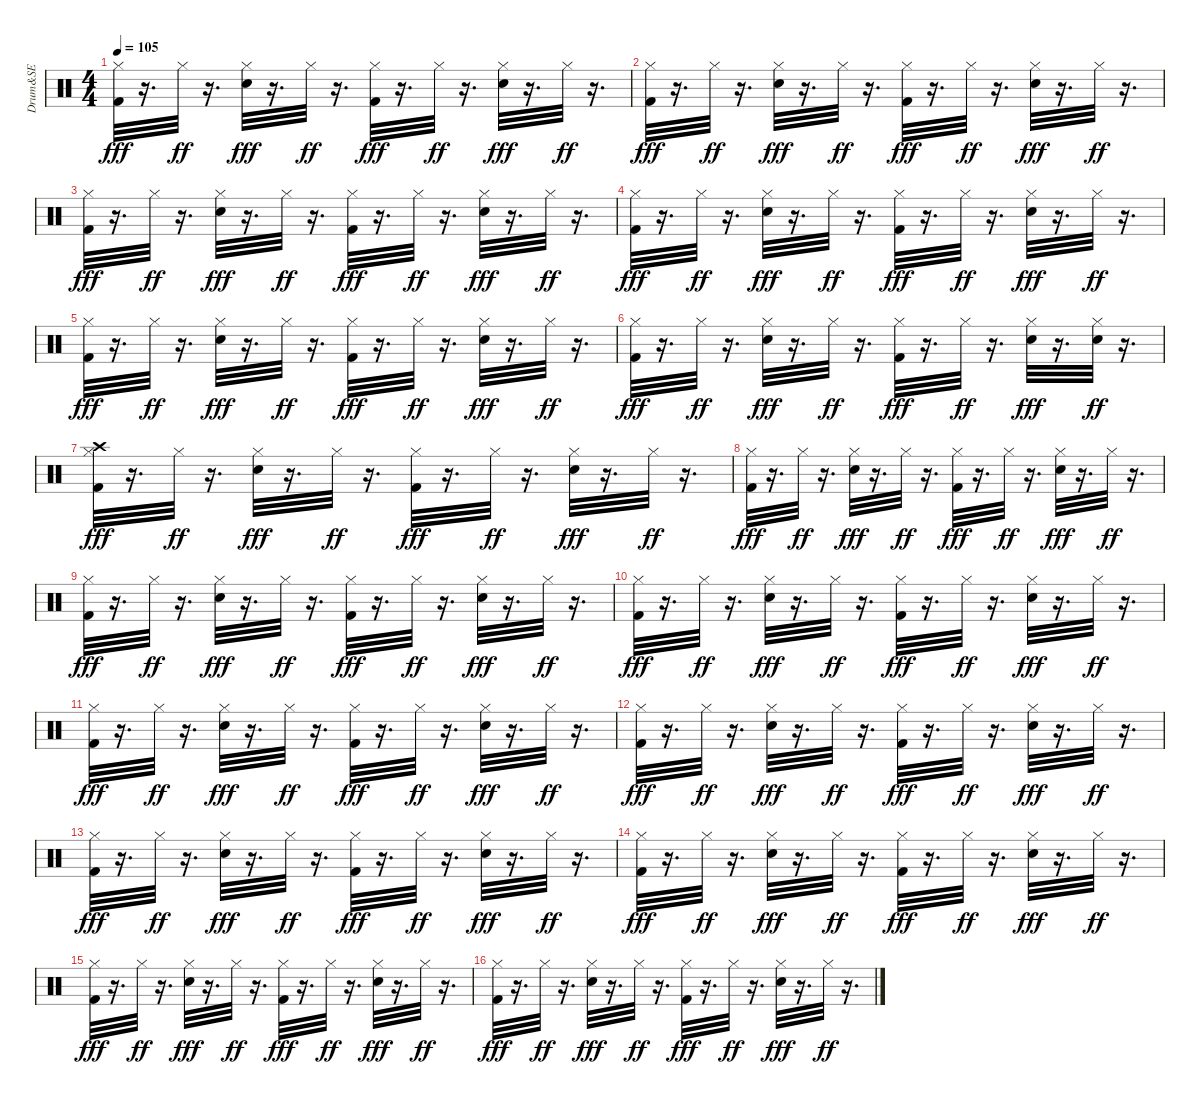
\track ("Drum&SE" "Drum&SE") {instrument percussion}
\staff {score}
\articulation defaults
\ts (4 4)
\tempo 105
\clef neutral
\ks c
("Kick (hit) 2" "Hi-Hat (closed)").32{dy fff} r.16{d} "Hi-Hat (closed)".32{dy ff} r.16{d} ("Snare (hit) 2" "Hi-Hat (closed)").32{dy fff} r.16{d} "Hi-Hat (closed)".32{dy ff} r.16{d} ("Kick (hit) 2" "Hi-Hat (closed)").32{dy fff} r.16{d} "Hi-Hat (closed)".32{dy ff} r.16{d} ("Snare (hit) 2" "Hi-Hat (closed)").32{dy fff} r.16{d} "Hi-Hat (closed)".32{dy ff} r.16{d} |
("Kick (hit) 2" "Hi-Hat (closed)").32{dy fff} r.16{d} "Hi-Hat (closed)".32{dy ff} r.16{d} ("Snare (hit) 2" "Hi-Hat (closed)").32{dy fff} r.16{d} "Hi-Hat (closed)".32{dy ff} r.16{d} ("Kick (hit) 2" "Hi-Hat (closed)").32{dy fff} r.16{d} "Hi-Hat (closed)".32{dy ff} r.16{d} ("Snare (hit) 2" "Hi-Hat (closed)").32{dy fff} r.16{d} "Hi-Hat (closed)".32{dy ff} r.16{d} |
("Kick (hit) 2" "Hi-Hat (closed)").32{dy fff} r.16{d} "Hi-Hat (closed)".32{dy ff} r.16{d} ("Snare (hit) 2" "Hi-Hat (closed)").32{dy fff} r.16{d} "Hi-Hat (closed)".32{dy ff} r.16{d} ("Kick (hit) 2" "Hi-Hat (closed)").32{dy fff} r.16{d} "Hi-Hat (closed)".32{dy ff} r.16{d} ("Snare (hit) 2" "Hi-Hat (closed)").32{dy fff} r.16{d} "Hi-Hat (closed)".32{dy ff} r.16{d} |
("Kick (hit) 2" "Hi-Hat (closed)").32{dy fff} r.16{d} "Hi-Hat (closed)".32{dy ff} r.16{d} ("Snare (hit) 2" "Hi-Hat (closed)").32{dy fff} r.16{d} "Hi-Hat (closed)".32{dy ff} r.16{d} ("Kick (hit) 2" "Hi-Hat (closed)").32{dy fff} r.16{d} "Hi-Hat (closed)".32{dy ff} r.16{d} ("Snare (hit) 2" "Hi-Hat (closed)").32{dy fff} r.16{d} "Hi-Hat (closed)".32{dy ff} r.16{d} |
("Kick (hit) 2" "Hi-Hat (closed)").32{dy fff} r.16{d} "Hi-Hat (closed)".32{dy ff} r.16{d} ("Snare (hit) 2" "Hi-Hat (closed)").32{dy fff} r.16{d} "Hi-Hat (closed)".32{dy ff} r.16{d} ("Kick (hit) 2" "Hi-Hat (closed)").32{dy fff} r.16{d} "Hi-Hat (closed)".32{dy ff} r.16{d} ("Snare (hit) 2" "Hi-Hat (closed)").32{dy fff} r.16{d} "Hi-Hat (closed)".32{dy ff} r.16{d} |
("Kick (hit) 2" "Hi-Hat (closed)").32{dy fff} r.16{d} "Hi-Hat (closed)".32{dy ff} r.16{d} ("Snare (hit) 2" "Hi-Hat (closed)").32{dy fff} r.16{d} "Hi-Hat (closed)".32{dy ff} r.16{d} ("Kick (hit) 2" "Hi-Hat (closed)").32{dy fff} r.16{d} "Hi-Hat (closed)".32{dy ff} r.16{d} ("Snare (hit) 2" "Hi-Hat (closed)").32{dy fff} r.16{d} ("Snare (hit) 2" "Hi-Hat (closed)").32{dy ff} r.16{d} |
("Kick (hit) 2" "Hi-Hat (closed)" "Crash high (hit)").32{dy fff} r.16{d} "Hi-Hat (closed)".32{dy ff} r.16{d} ("Snare (hit) 2" "Hi-Hat (closed)").32{dy fff} r.16{d} "Hi-Hat (closed)".32{dy ff} r.16{d} ("Kick (hit) 2" "Hi-Hat (closed)").32{dy fff} r.16{d} "Hi-Hat (closed)".32{dy ff} r.16{d} ("Snare (hit) 2" "Hi-Hat (closed)").32{dy fff} r.16{d} "Hi-Hat (closed)".32{dy ff} r.16{d} |
("Kick (hit) 2" "Hi-Hat (closed)").32{dy fff} r.16{d} "Hi-Hat (closed)".32{dy ff} r.16{d} ("Snare (hit) 2" "Hi-Hat (closed)").32{dy fff} r.16{d} "Hi-Hat (closed)".32{dy ff} r.16{d} ("Kick (hit) 2" "Hi-Hat (closed)").32{dy fff} r.16{d} "Hi-Hat (closed)".32{dy ff} r.16{d} ("Snare (hit) 2" "Hi-Hat (closed)").32{dy fff} r.16{d} "Hi-Hat (closed)".32{dy ff} r.16{d} |
("Kick (hit) 2" "Hi-Hat (closed)").32{dy fff} r.16{d} "Hi-Hat (closed)".32{dy ff} r.16{d} ("Snare (hit) 2" "Hi-Hat (closed)").32{dy fff} r.16{d} "Hi-Hat (closed)".32{dy ff} r.16{d} ("Kick (hit) 2" "Hi-Hat (closed)").32{dy fff} r.16{d} "Hi-Hat (closed)".32{dy ff} r.16{d} ("Snare (hit) 2" "Hi-Hat (closed)").32{dy fff} r.16{d} "Hi-Hat (closed)".32{dy ff} r.16{d} |
("Kick (hit) 2" "Hi-Hat (closed)").32{dy fff} r.16{d} "Hi-Hat (closed)".32{dy ff} r.16{d} ("Snare (hit) 2" "Hi-Hat (closed)").32{dy fff} r.16{d} "Hi-Hat (closed)".32{dy ff} r.16{d} ("Kick (hit) 2" "Hi-Hat (closed)").32{dy fff} r.16{d} "Hi-Hat (closed)".32{dy ff} r.16{d} ("Snare (hit) 2" "Hi-Hat (closed)").32{dy fff} r.16{d} "Hi-Hat (closed)".32{dy ff} r.16{d} |
("Kick (hit) 2" "Hi-Hat (closed)").32{dy fff volume 9} r.16{d} "Hi-Hat (closed)".32{dy ff} r.16{d} ("Snare (hit) 2" "Hi-Hat (closed)").32{dy fff volume 9} r.16{d} "Hi-Hat (closed)".32{dy ff volume 8} r.16{d} ("Kick (hit) 2" "Hi-Hat (closed)").32{dy fff} r.16{d} "Hi-Hat (closed)".32{dy ff volume 8} r.16{d} ("Snare (hit) 2" "Hi-Hat (closed)").32{dy fff volume 8} r.16{d} "Hi-Hat (closed)".32{dy ff volume 8} r.16{d} |
("Kick (hit) 2" "Hi-Hat (closed)").32{dy fff} r.16{d} "Hi-Hat (closed)".32{dy ff volume 8} r.16{d} ("Snare (hit) 2" "Hi-Hat (closed)").32{dy fff volume 8} r.16{d} "Hi-Hat (closed)".32{dy ff volume 8} r.16{d} ("Kick (hit) 2" "Hi-Hat (closed)").32{dy fff} r.16{d} "Hi-Hat (closed)".32{dy ff volume 8} r.16{d} ("Snare (hit) 2" "Hi-Hat (closed)").32{dy fff volume 8} r.16{d} "Hi-Hat (closed)".32{dy ff} r.16{d} |
("Kick (hit) 2" "Hi-Hat (closed)").32{dy fff volume 7} r.16{d} "Hi-Hat (closed)".32{dy ff volume 7} r.16{d} ("Snare (hit) 2" "Hi-Hat (closed)").32{dy fff volume 7} r.16{d} "Hi-Hat (closed)".32{dy ff} r.16{d} ("Kick (hit) 2" "Hi-Hat (closed)").32{dy fff volume 7} r.16{d} "Hi-Hat (closed)".32{dy ff volume 7} r.16{d} ("Snare (hit) 2" "Hi-Hat (closed)").32{dy fff volume 7} r.16{d} "Hi-Hat (closed)".32{dy ff} r.16{d} |
("Kick (hit) 2" "Hi-Hat (closed)").32{dy fff volume 7} r.16{d} "Hi-Hat (closed)".32{dy ff volume 6} r.16{d} ("Snare (hit) 2" "Hi-Hat (closed)").32{dy fff} r.16{d} "Hi-Hat (closed)".32{dy ff volume 6} r.16{d} ("Kick (hit) 2" "Hi-Hat (closed)").32{dy fff volume 6} r.16{d} "Hi-Hat (closed)".32{dy ff volume 6} r.16{d} ("Snare (hit) 2" "Hi-Hat (closed)").32{dy fff} r.16{d} "Hi-Hat (closed)".32{dy ff volume 6} r.16{d} |
("Kick (hit) 2" "Hi-Hat (closed)").32{dy fff volume 6} r.16{d} "Hi-Hat (closed)".32{dy ff volume 6} r.16{d} ("Snare (hit) 2" "Hi-Hat (closed)").32{dy fff} r.16{d} "Hi-Hat (closed)".32{dy ff volume 6} r.16{d} ("Kick (hit) 2" "Hi-Hat (closed)").32{dy fff volume 6} r.16{d} "Hi-Hat (closed)".32{dy ff} r.16{d} ("Snare (hit) 2" "Hi-Hat (closed)").32{dy fff volume 5} r.16{d} "Hi-Hat (closed)".32{dy ff volume 5} r.16{d} |
("Kick (hit) 2" "Hi-Hat (closed)").32{dy fff volume 5} r.16{d} "Hi-Hat (closed)".32{dy ff} r.16{d} ("Snare (hit) 2" "Hi-Hat (closed)").32{dy fff volume 5} r.16{d} "Hi-Hat (closed)".32{dy ff volume 5} r.16{d} ("Kick (hit) 2" "Hi-Hat (closed)").32{dy fff volume 5} r.16{d} "Hi-Hat (closed)".32{dy ff} r.16{d} ("Snare (hit) 2" "Hi-Hat (closed)").32{dy fff volume 5} r.16{d} "Hi-Hat (closed)".32{dy ff volume 4} r.16{d}
